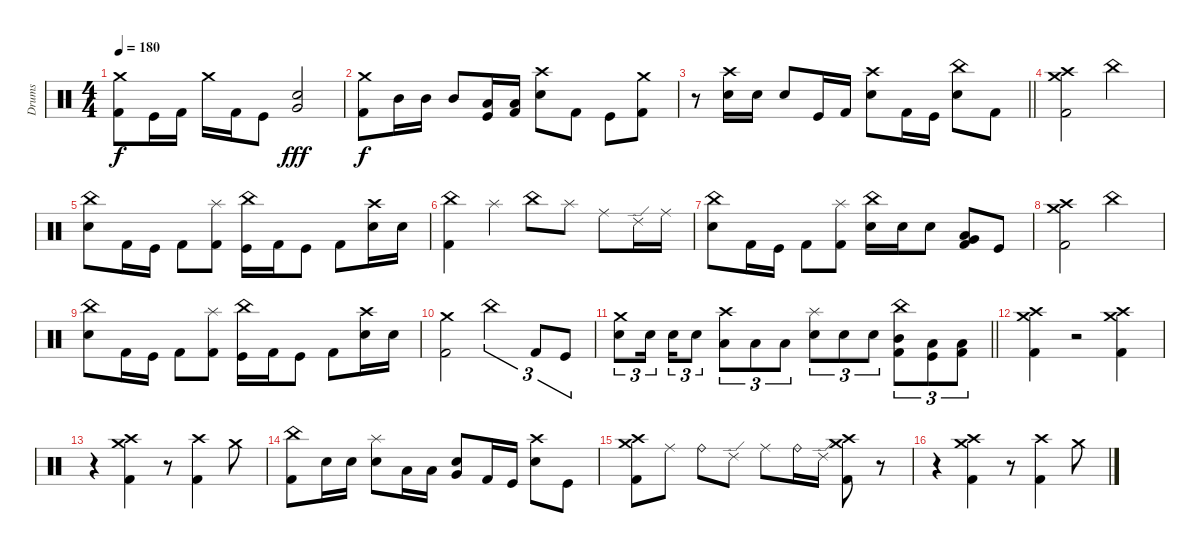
\track ("Drums" "Drums") {instrument percussion}
\staff {score}
\articulation defaults
\ts (4 4)
\tempo 180
\clef neutral
\ks c
("Crash medium (hit)" "Kick (hit) 2").8{dy f} "Kick (hit)".16 "Kick (hit) 2".16 "Crash medium (hit)".16 "Kick (hit) 2".16 "Kick (hit)".8 ("Electric Snare (hit)" "Very Low Tom (hit)").2{dy fff} |
("Crash medium (hit)" "Kick (hit) 2").8{dy f} "Mid Tom (hit)".16 "Mid Tom (hit)".16 "Mid Tom (hit)".8 ("Low Tom (hit)" "Kick (hit)").16 ("Low Tom (hit)" "Kick (hit) 2").16 ("Crash high (hit)" "Electric Snare (hit)").8 "Kick (hit) 2".8 "Kick (hit)".8 ("Crash medium (hit)" "Kick (hit) 2").8 |
\barLineRight lightlight
r.8 ("Crash high (hit)" "Electric Snare (hit)").16 "Electric Snare (hit)".16 "Electric Snare (hit)".8 "Kick (hit)".16 "Kick (hit) 2".16 ("Crash high (hit)" "Electric Snare (hit)").8 "Kick (hit) 2".16 "Kick (hit)".16 ("China (hit)" "Electric Snare (hit)").8 "Kick (hit) 2".8 |
("Crash medium (hit)" "Crash high (hit)" "Kick (hit) 2").2 "China (hit)".2 |
("China (hit)" "Electric Snare (hit)").8 "Kick (hit) 2".16 "Kick (hit)".16 "Kick (hit) 2".8 ("Splash (hit)" "Kick (hit) 2").8 ("China (hit)" "Kick (hit)").16 "Kick (hit) 2".16 "Kick (hit)".8 "Kick (hit) 2".8 ("Crash high (hit)" "Electric Snare (hit)").16 "Electric Snare (hit)".16 |
("China (hit)" "Kick (hit) 2").4 "Splash (hit)".4 "China (hit)".8 "Splash (hit)".8 "Ride (middle)".8 "Ride (edge) 2".16 "Ride (middle)".16 |
("China (hit)" "Electric Snare (hit)").8 "Kick (hit) 2".16 "Kick (hit)".16 "Kick (hit) 2".8 ("Splash (hit)" "Kick (hit) 2").8 ("China (hit)" "Electric Snare (hit)").16 "Electric Snare (hit)".16 "Electric Snare (hit)".8 ("Very Low Tom (hit)" "Low Tom (hit)" "Kick (hit) 2").8 "Kick (hit)".8 |
("Crash medium (hit)" "Crash high (hit)" "Kick (hit) 2").2 "China (hit)".2 |
("China (hit)" "Electric Snare (hit)").8 "Kick (hit) 2".16 "Kick (hit)".16 "Kick (hit) 2".8 ("Splash (hit)" "Kick (hit) 2").8 ("China (hit)" "Kick (hit)").16 "Kick (hit) 2".16 "Kick (hit)".8 "Kick (hit) 2".8 ("Crash high (hit)" "Electric Snare (hit)").16 "Electric Snare (hit)".16 |
("Crash medium (hit)" "Kick (hit) 2").2 "China (hit)".2{tu (3 2)} "Kick (hit) 2".8{tu (3 2)} "Kick (hit)".8{tu (3 2)} |
\barLineRight lightlight
("Crash medium (hit)" "Electric Snare (hit)").8{tu (3 2)} "Electric Snare (hit)".16{tu (3 2) beam splitsecondary} "Electric Snare (hit)".16{tu (3 2)} "Electric Snare (hit)".8{tu (3 2)} ("Crash high (hit)" "Low Tom (hit)").8{tu (3 2)} "Low Tom (hit)".8{tu (3 2)} "Low Tom (hit)".8{tu (3 2)} ("Splash (hit)" "Electric Snare (hit)").8{tu (3 2)} "Electric Snare (hit)".8{tu (3 2)} "Electric Snare (hit)".8{tu (3 2)} ("China (hit)" "Mid Tom (hit)" "Kick (hit) 2").8{tu (3 2)} ("Low Tom (hit)" "Kick (hit)").8{tu (3 2)} ("Low Tom (hit)" "Kick (hit) 2").8{tu (3 2)} |
("Crash high (hit)" "Crash medium (hit)" "Kick (hit) 2").4 r.2 ("Crash high (hit)" "Crash medium (hit)" "Kick (hit) 2").4 |
r.4 ("Crash high (hit)" "Crash medium (hit)" "Kick (hit) 2").4 r.8 ("Crash high (hit)" "Kick (hit) 2").4 "Crash medium (hit)".8 |
("China (hit)" "Kick (hit) 2").8 "Electric Snare (hit)".16 "Electric Snare (hit)".16 ("Splash (hit)" "Electric Snare (hit)").8 "Low Tom (hit)".16 "Low Tom (hit)".16 ("Very Low Tom (hit)" "Electric Snare (hit)").8 "Kick (hit) 2".16 "Kick (hit)".16 ("Crash high (hit)" "Electric Snare (hit)").8 "Kick (hit)".8 |
("Crash high (hit)" "Crash medium (hit)" "Kick (hit) 2").8 "Ride (middle)".8 "Ride (bell)".8 "Ride (edge) 2".8 "Ride (middle)".8 "Ride (bell)".16 "Ride (edge) 2".16 ("Crash high (hit)" "Crash medium (hit)" "Kick (hit) 2").8 r.8 |
r.4 ("Crash high (hit)" "Crash medium (hit)" "Kick (hit) 2").4 r.8 ("Crash high (hit)" "Kick (hit) 2").4 "Crash medium (hit)".8
